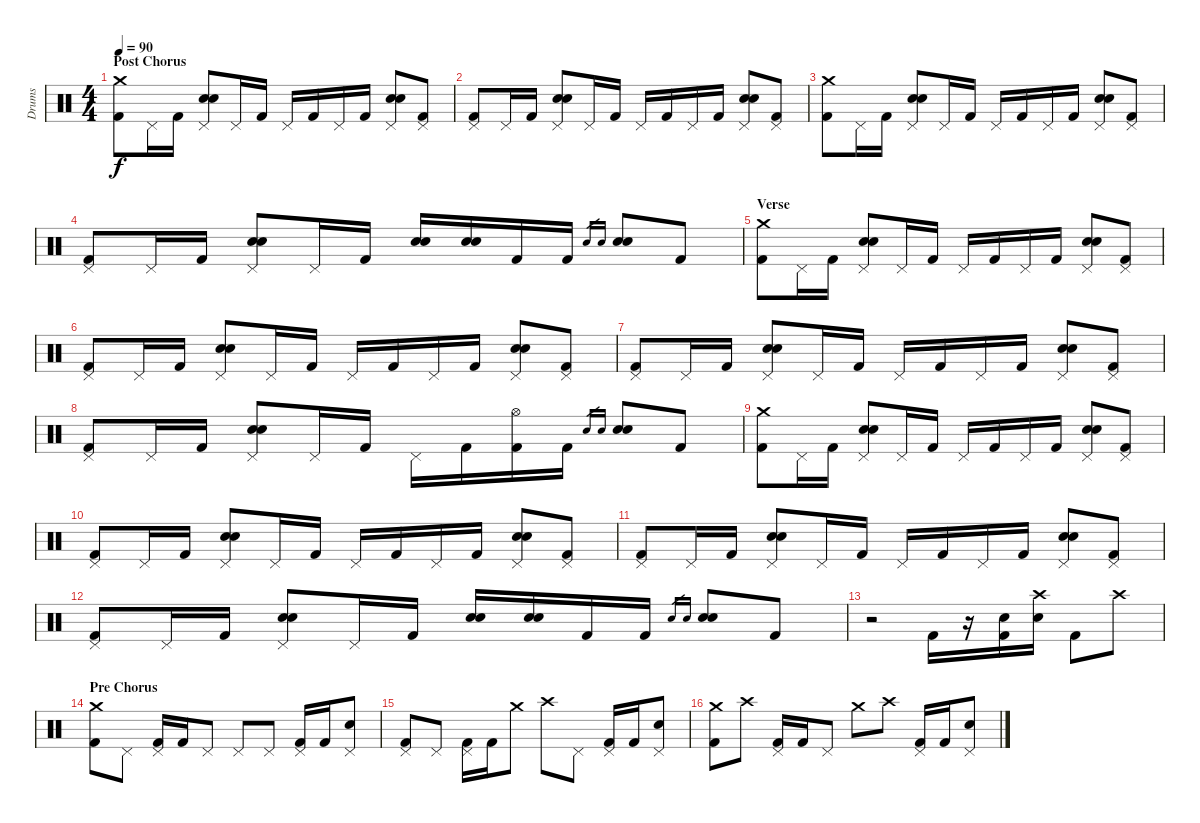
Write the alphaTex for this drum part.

\track ("Drums" "Drums") {instrument percussion}
\staff {score}
\articulation defaults
\ts (4 4)
\section ("" "Post Chorus")
\tempo 90
\clef neutral
\ks c
("Crash medium (hit)" "Kick (hit) 2").8{dy f} "Pedal Hi-Hat (hit)".16 "Kick (hit) 2".16 ("Pedal Hi-Hat (hit)" "Electric Snare (hit)" "Snare (hit) 2").8 "Pedal Hi-Hat (hit)".16 "Kick (hit) 2".16 "Pedal Hi-Hat (hit)".16 "Kick (hit) 2".16 "Pedal Hi-Hat (hit)".16 "Kick (hit) 2".16 ("Pedal Hi-Hat (hit)" "Electric Snare (hit)" "Snare (hit) 2").8 ("Pedal Hi-Hat (hit)" "Kick (hit) 2").8 |
("Pedal Hi-Hat (hit)" "Kick (hit) 2").8 "Pedal Hi-Hat (hit)".16 "Kick (hit) 2".16 ("Pedal Hi-Hat (hit)" "Electric Snare (hit)" "Snare (hit) 2").8 "Pedal Hi-Hat (hit)".16 "Kick (hit) 2".16 "Pedal Hi-Hat (hit)".16 "Kick (hit) 2".16 "Pedal Hi-Hat (hit)".16 "Kick (hit) 2".16 ("Pedal Hi-Hat (hit)" "Electric Snare (hit)" "Snare (hit) 2").8 ("Pedal Hi-Hat (hit)" "Kick (hit) 2").8 |
("Crash medium (hit)" "Kick (hit) 2").8 "Pedal Hi-Hat (hit)".16 "Kick (hit) 2".16 ("Pedal Hi-Hat (hit)" "Electric Snare (hit)" "Snare (hit) 2").8 "Pedal Hi-Hat (hit)".16 "Kick (hit) 2".16 "Pedal Hi-Hat (hit)".16 "Kick (hit) 2".16 "Pedal Hi-Hat (hit)".16 "Kick (hit) 2".16 ("Pedal Hi-Hat (hit)" "Electric Snare (hit)" "Snare (hit) 2").8 ("Pedal Hi-Hat (hit)" "Kick (hit) 2").8 |
("Pedal Hi-Hat (hit)" "Kick (hit) 2").8 "Pedal Hi-Hat (hit)".16 "Kick (hit) 2".16 ("Pedal Hi-Hat (hit)" "Electric Snare (hit)" "Snare (hit) 2").8 "Pedal Hi-Hat (hit)".16 "Kick (hit) 2".16 ("Snare (hit) 2" "Electric Snare (hit)").16 ("Snare (hit) 2" "Electric Snare (hit)").16 "Kick (hit) 2".16 "Kick (hit) 2".16 "Snare (hit) 2".16{gr} "Electric Snare (hit)".16{gr} ("Snare (hit) 2" "Electric Snare (hit)").8 "Kick (hit) 2".8 |
\section ("" "Verse")
("Crash medium (hit)" "Kick (hit) 2").8 "Pedal Hi-Hat (hit)".16 "Kick (hit) 2".16 ("Pedal Hi-Hat (hit)" "Electric Snare (hit)" "Snare (hit) 2").8 "Pedal Hi-Hat (hit)".16 "Kick (hit) 2".16 "Pedal Hi-Hat (hit)".16 "Kick (hit) 2".16 "Pedal Hi-Hat (hit)".16 "Kick (hit) 2".16 ("Pedal Hi-Hat (hit)" "Electric Snare (hit)" "Snare (hit) 2").8 ("Pedal Hi-Hat (hit)" "Kick (hit) 2").8 |
("Pedal Hi-Hat (hit)" "Kick (hit) 2").8 "Pedal Hi-Hat (hit)".16 "Kick (hit) 2".16 ("Pedal Hi-Hat (hit)" "Electric Snare (hit)" "Snare (hit) 2").8 "Pedal Hi-Hat (hit)".16 "Kick (hit) 2".16 "Pedal Hi-Hat (hit)".16 "Kick (hit) 2".16 "Pedal Hi-Hat (hit)".16 "Kick (hit) 2".16 ("Pedal Hi-Hat (hit)" "Electric Snare (hit)" "Snare (hit) 2").8 ("Pedal Hi-Hat (hit)" "Kick (hit) 2").8 |
("Pedal Hi-Hat (hit)" "Kick (hit) 2").8 "Pedal Hi-Hat (hit)".16 "Kick (hit) 2".16 ("Pedal Hi-Hat (hit)" "Electric Snare (hit)" "Snare (hit) 2").8 "Pedal Hi-Hat (hit)".16 "Kick (hit) 2".16 "Pedal Hi-Hat (hit)".16 "Kick (hit) 2".16 "Pedal Hi-Hat (hit)".16 "Kick (hit) 2".16 ("Pedal Hi-Hat (hit)" "Electric Snare (hit)" "Snare (hit) 2").8 ("Pedal Hi-Hat (hit)" "Kick (hit) 2").8 |
("Pedal Hi-Hat (hit)" "Kick (hit) 2").8 "Pedal Hi-Hat (hit)".16 "Kick (hit) 2".16 ("Pedal Hi-Hat (hit)" "Electric Snare (hit)" "Snare (hit) 2").8 "Pedal Hi-Hat (hit)".16 "Kick (hit) 2".16 "Pedal Hi-Hat (hit)".16 "Kick (hit) 2".16 ("Hi-Hat (open)" "Kick (hit) 2").16 "Kick (hit) 2".16 "Snare (hit) 2".16{gr} "Electric Snare (hit)".16{gr} ("Snare (hit) 2" "Electric Snare (hit)").8 "Kick (hit) 2".8 |
("Crash medium (hit)" "Kick (hit) 2").8 "Pedal Hi-Hat (hit)".16 "Kick (hit) 2".16 ("Pedal Hi-Hat (hit)" "Electric Snare (hit)" "Snare (hit) 2").8 "Pedal Hi-Hat (hit)".16 "Kick (hit) 2".16 "Pedal Hi-Hat (hit)".16 "Kick (hit) 2".16 "Pedal Hi-Hat (hit)".16 "Kick (hit) 2".16 ("Pedal Hi-Hat (hit)" "Electric Snare (hit)" "Snare (hit) 2").8 ("Pedal Hi-Hat (hit)" "Kick (hit) 2").8 |
("Pedal Hi-Hat (hit)" "Kick (hit) 2").8 "Pedal Hi-Hat (hit)".16 "Kick (hit) 2".16 ("Pedal Hi-Hat (hit)" "Electric Snare (hit)" "Snare (hit) 2").8 "Pedal Hi-Hat (hit)".16 "Kick (hit) 2".16 "Pedal Hi-Hat (hit)".16 "Kick (hit) 2".16 "Pedal Hi-Hat (hit)".16 "Kick (hit) 2".16 ("Pedal Hi-Hat (hit)" "Electric Snare (hit)" "Snare (hit) 2").8 ("Pedal Hi-Hat (hit)" "Kick (hit) 2").8 |
("Pedal Hi-Hat (hit)" "Kick (hit) 2").8 "Pedal Hi-Hat (hit)".16 "Kick (hit) 2".16 ("Pedal Hi-Hat (hit)" "Electric Snare (hit)" "Snare (hit) 2").8 "Pedal Hi-Hat (hit)".16 "Kick (hit) 2".16 "Pedal Hi-Hat (hit)".16 "Kick (hit) 2".16 "Pedal Hi-Hat (hit)".16 "Kick (hit) 2".16 ("Pedal Hi-Hat (hit)" "Electric Snare (hit)" "Snare (hit) 2").8 ("Pedal Hi-Hat (hit)" "Kick (hit) 2").8 |
("Pedal Hi-Hat (hit)" "Kick (hit) 2").8 "Pedal Hi-Hat (hit)".16 "Kick (hit) 2".16 ("Pedal Hi-Hat (hit)" "Electric Snare (hit)" "Snare (hit) 2").8 "Pedal Hi-Hat (hit)".16 "Kick (hit) 2".16 ("Snare (hit) 2" "Electric Snare (hit)").16 ("Snare (hit) 2" "Electric Snare (hit)").16 "Kick (hit) 2".16 "Kick (hit) 2".16 "Snare (hit) 2".16{gr} "Electric Snare (hit)".16{gr} ("Snare (hit) 2" "Electric Snare (hit)").8 "Kick (hit) 2".8 |
r.2 "Kick (hit) 2".16 r.16 ("Electric Snare (hit)" "Kick (hit) 2").16 ("Crash high (hit)" "Snare (hit) 2").16 "Kick (hit) 2".8 "Crash high (hit)".8 |
\section ("" "Pre Chorus")
("Crash medium (hit)" "Kick (hit) 2").8 "Pedal Hi-Hat (hit)".8 ("Pedal Hi-Hat (hit)" "Kick (hit) 2").16 "Kick (hit) 2".16 "Pedal Hi-Hat (hit)".8 "Pedal Hi-Hat (hit)".8 "Pedal Hi-Hat (hit)".8 ("Pedal Hi-Hat (hit)" "Kick (hit) 2").16 "Kick (hit) 2".16 ("Pedal Hi-Hat (hit)" "Electric Snare (hit)").8 |
("Pedal Hi-Hat (hit)" "Kick (hit) 2").8 "Pedal Hi-Hat (hit)".8 ("Pedal Hi-Hat (hit)" "Kick (hit) 2").16 "Kick (hit) 2".16 "Crash medium (hit)".8 "Crash high (hit)".8 "Pedal Hi-Hat (hit)".8 ("Pedal Hi-Hat (hit)" "Kick (hit) 2").16 "Kick (hit) 2".16 ("Pedal Hi-Hat (hit)" "Electric Snare (hit)").8 |
("Crash medium (hit)" "Kick (hit) 2").8 "Crash high (hit)".8 ("Pedal Hi-Hat (hit)" "Kick (hit) 2").16 "Kick (hit) 2".16 "Pedal Hi-Hat (hit)".8 "Crash medium (hit)".8 "Crash high (hit)".8 ("Pedal Hi-Hat (hit)" "Kick (hit) 2").16 "Kick (hit) 2".16 ("Pedal Hi-Hat (hit)" "Electric Snare (hit)").8
